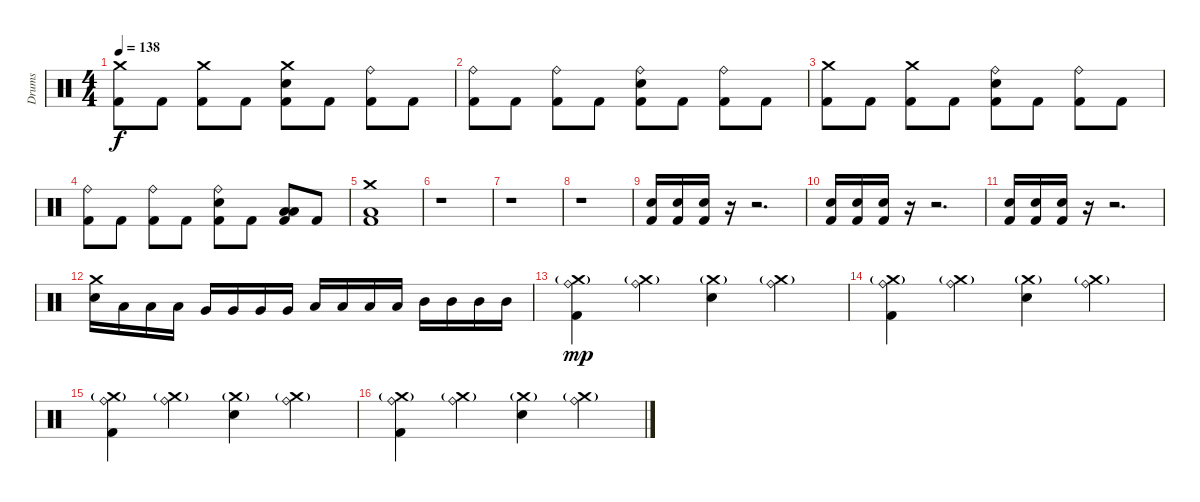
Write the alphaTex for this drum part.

\track ("Drums" "Drums") {instrument percussion}
\staff {score}
\articulation defaults
\ts (4 4)
\tempo 138
\clef neutral
\ks c
("Crash medium (hit)" "Kick (hit) 2").8{dy f} "Kick (hit) 2".8 ("Crash medium (hit)" "Kick (hit) 2").8 "Kick (hit) 2".8 ("Crash medium (hit)" "Electric Snare (hit)" "Kick (hit) 2").8 "Kick (hit) 2".8 ("Ride (bell)" "Kick (hit) 2").8 "Kick (hit) 2".8 |
("Ride (bell)" "Kick (hit) 2").8 "Kick (hit) 2".8 ("Ride (bell)" "Kick (hit) 2").8 "Kick (hit) 2".8 ("Ride (bell)" "Electric Snare (hit)" "Kick (hit) 2").8 "Kick (hit) 2".8 ("Ride (bell)" "Kick (hit) 2").8 "Kick (hit) 2".8 |
("Crash medium (hit)" "Kick (hit) 2").8 "Kick (hit) 2".8 ("Crash medium (hit)" "Kick (hit) 2").8 "Kick (hit) 2".8 ("Ride (bell)" "Electric Snare (hit)" "Kick (hit) 2").8 "Kick (hit) 2".8 ("Ride (bell)" "Kick (hit) 2").8 "Kick (hit) 2".8 |
("Ride (bell)" "Kick (hit) 2").8 "Kick (hit) 2".8 ("Ride (bell)" "Kick (hit) 2").8 "Kick (hit) 2".8 ("Ride (bell)" "Electric Snare (hit)" "Kick (hit) 2").8 "Kick (hit) 2".8 ("Low Floor Tom (hit)" "Low Floor Tom (hit)" "Kick (hit) 2").8 "Kick (hit) 2".8 |
("Crash medium (hit)" "Low Floor Tom (hit)" "Kick (hit) 2").1 |
r.1 |
r.1 |
r.1 |
("Electric Snare (hit)" "Kick (hit) 2").16 ("Electric Snare (hit)" "Kick (hit) 2").16 ("Electric Snare (hit)" "Kick (hit) 2").16 r.16 r.2{d} |
("Electric Snare (hit)" "Kick (hit) 2").16 ("Electric Snare (hit)" "Kick (hit) 2").16 ("Electric Snare (hit)" "Kick (hit) 2").16 r.16 r.2{d} |
("Electric Snare (hit)" "Kick (hit) 2").16 ("Electric Snare (hit)" "Kick (hit) 2").16 ("Electric Snare (hit)" "Kick (hit) 2").16 r.16 r.2{d} |
("Crash medium (hit)" "Electric Snare (hit)").16 "Low Floor Tom (hit)".16 "Low Floor Tom (hit)".16 "Low Floor Tom (hit)".16 "Very Low Tom (hit)".16 "Very Low Tom (hit)".16 "Very Low Tom (hit)".16 "Very Low Tom (hit)".16 "Low Tom (hit)".16 "Low Tom (hit)".16 "Low Tom (hit)".16 "Low Tom (hit)".16 "Mid Tom (hit)".16 "Mid Tom (hit)".16 "Mid Tom (hit)".16 "Mid Tom (hit)".16 |
("Crash medium (hit)"{g} "Ride (bell)" "Kick (hit) 2").4{dy mp} ("Crash medium (hit)"{g} "Ride (bell)").4 ("Crash medium (hit)"{g} "Electric Snare (hit)").4 ("Crash medium (hit)"{g} "Ride (bell)").4 |
("Crash medium (hit)"{g} "Ride (bell)" "Kick (hit) 2").4 ("Crash medium (hit)"{g} "Ride (bell)").4 ("Crash medium (hit)"{g} "Electric Snare (hit)").4 ("Crash medium (hit)"{g} "Ride (bell)").4 |
("Crash medium (hit)"{g} "Ride (bell)" "Kick (hit) 2").4 ("Crash medium (hit)"{g} "Ride (bell)").4 ("Crash medium (hit)"{g} "Electric Snare (hit)").4 ("Crash medium (hit)"{g} "Ride (bell)").4 |
("Crash medium (hit)"{g} "Ride (bell)" "Kick (hit) 2").4 ("Crash medium (hit)"{g} "Ride (bell)").4 ("Crash medium (hit)"{g} "Electric Snare (hit)").4 ("Crash medium (hit)"{g} "Ride (bell)").4
